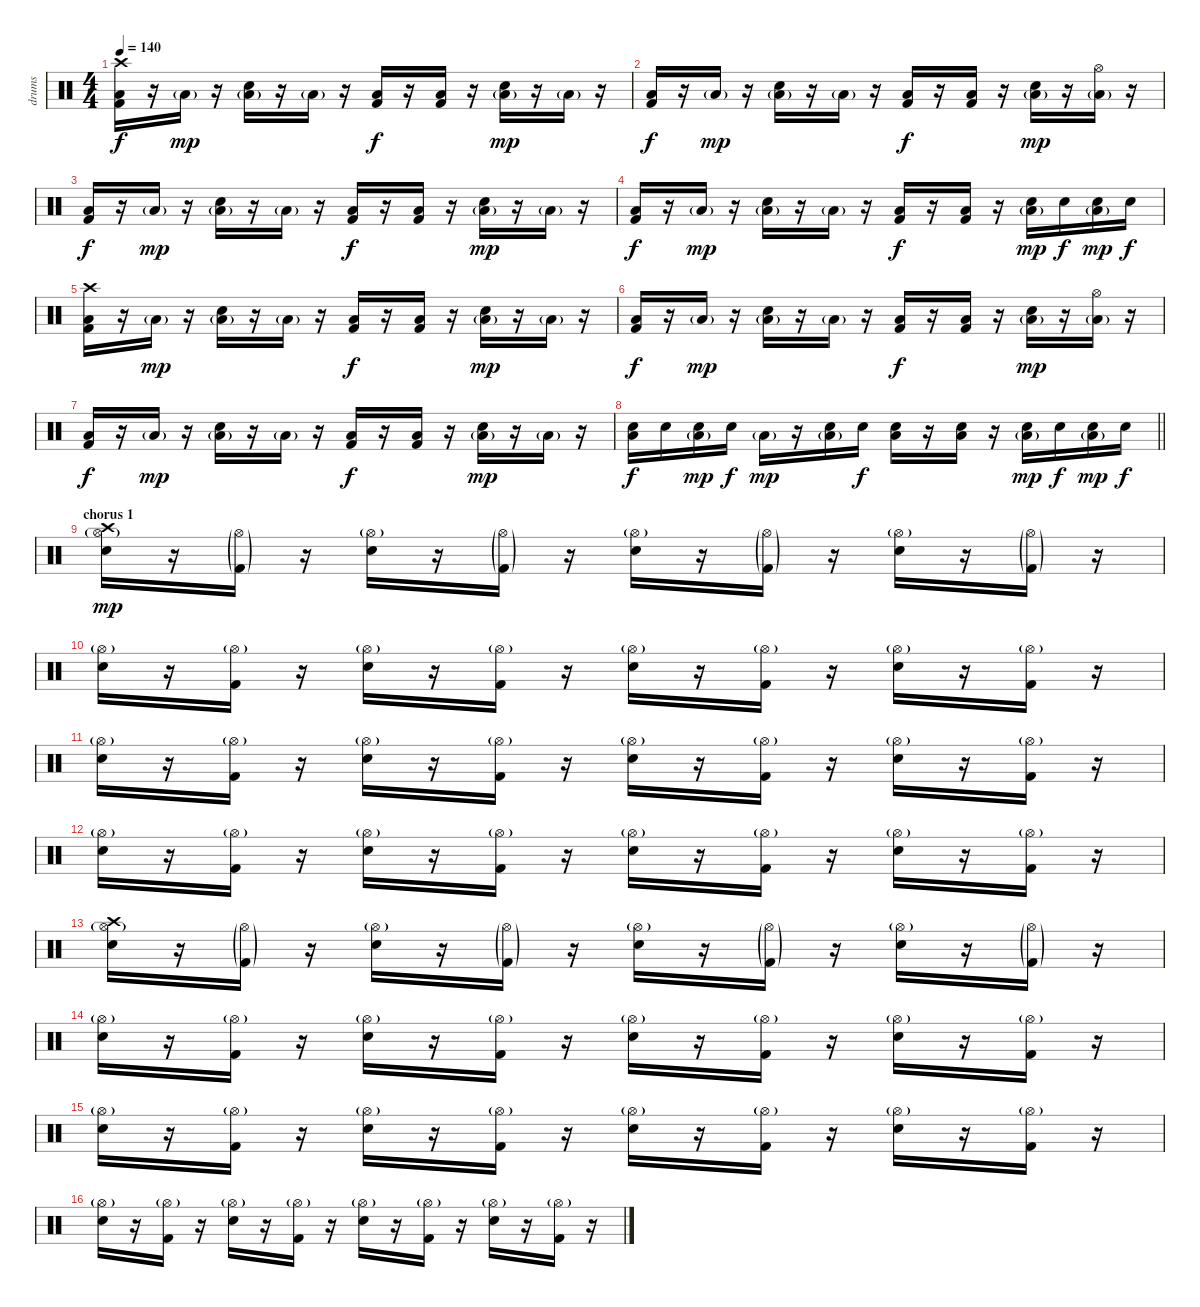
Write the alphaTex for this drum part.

\track ("drums" "drums") {instrument percussion}
\staff {score}
\articulation defaults
\ts (4 4)
\tempo 140
\clef neutral
\ks c
("Kick (hit) 2" "Low Floor Tom (hit)" "Crash high (hit)").16{dy f} r.16 "Low Floor Tom (hit)"{g}.16{dy mp} r.16 ("Electric Snare (hit)" "Low Floor Tom (hit)"{g}).16 r.16 "Low Floor Tom (hit)"{g}.16 r.16 ("Kick (hit) 2" "Low Floor Tom (hit)").16{dy f} r.16 ("Kick (hit) 2" "Low Floor Tom (hit)").16 r.16 ("Electric Snare (hit)" "Low Floor Tom (hit)"{g}).16{dy mp} r.16 "Low Floor Tom (hit)"{g}.16 r.16 |
("Kick (hit) 2" "Low Floor Tom (hit)").16{dy f} r.16 "Low Floor Tom (hit)"{g}.16{dy mp} r.16 ("Electric Snare (hit)" "Low Floor Tom (hit)"{g}).16 r.16 "Low Floor Tom (hit)"{g}.16 r.16 ("Kick (hit) 2" "Low Floor Tom (hit)").16{dy f} r.16 ("Kick (hit) 2" "Low Floor Tom (hit)").16 r.16 ("Electric Snare (hit)" "Low Floor Tom (hit)"{g}).16{dy mp} r.16 ("Hi-Hat (open)" "Low Floor Tom (hit)"{g}).16 r.16 |
("Kick (hit) 2" "Low Floor Tom (hit)").16{dy f} r.16 "Low Floor Tom (hit)"{g}.16{dy mp} r.16 ("Electric Snare (hit)" "Low Floor Tom (hit)"{g}).16 r.16 "Low Floor Tom (hit)"{g}.16 r.16 ("Kick (hit) 2" "Low Floor Tom (hit)").16{dy f} r.16 ("Kick (hit) 2" "Low Floor Tom (hit)").16 r.16 ("Electric Snare (hit)" "Low Floor Tom (hit)"{g}).16{dy mp} r.16 "Low Floor Tom (hit)"{g}.16 r.16 |
("Kick (hit) 2" "Low Floor Tom (hit)").16{dy f} r.16 "Low Floor Tom (hit)"{g}.16{dy mp} r.16 ("Electric Snare (hit)" "Low Floor Tom (hit)"{g}).16 r.16 "Low Floor Tom (hit)"{g}.16 r.16 ("Kick (hit) 2" "Low Floor Tom (hit)").16{dy f} r.16 ("Kick (hit) 2" "Low Floor Tom (hit)").16 r.16 ("Electric Snare (hit)" "Low Floor Tom (hit)"{g}).16{dy mp} "Electric Snare (hit)".16{dy f} ("Electric Snare (hit)" "Low Floor Tom (hit)"{g}).16{dy mp} "Electric Snare (hit)".16{dy f} |
("Kick (hit) 2" "Low Floor Tom (hit)" "Crash high (hit)").16 r.16 "Low Floor Tom (hit)"{g}.16{dy mp} r.16 ("Electric Snare (hit)" "Low Floor Tom (hit)"{g}).16 r.16 "Low Floor Tom (hit)"{g}.16 r.16 ("Kick (hit) 2" "Low Floor Tom (hit)").16{dy f} r.16 ("Kick (hit) 2" "Low Floor Tom (hit)").16 r.16 ("Electric Snare (hit)" "Low Floor Tom (hit)"{g}).16{dy mp} r.16 "Low Floor Tom (hit)"{g}.16 r.16 |
("Kick (hit) 2" "Low Floor Tom (hit)").16{dy f} r.16 "Low Floor Tom (hit)"{g}.16{dy mp} r.16 ("Electric Snare (hit)" "Low Floor Tom (hit)"{g}).16 r.16 "Low Floor Tom (hit)"{g}.16 r.16 ("Kick (hit) 2" "Low Floor Tom (hit)").16{dy f} r.16 ("Kick (hit) 2" "Low Floor Tom (hit)").16 r.16 ("Electric Snare (hit)" "Low Floor Tom (hit)"{g}).16{dy mp} r.16 ("Hi-Hat (open)" "Low Floor Tom (hit)"{g}).16 r.16 |
("Kick (hit) 2" "Low Floor Tom (hit)").16{dy f} r.16 "Low Floor Tom (hit)"{g}.16{dy mp} r.16 ("Electric Snare (hit)" "Low Floor Tom (hit)"{g}).16 r.16 "Low Floor Tom (hit)"{g}.16 r.16 ("Kick (hit) 2" "Low Floor Tom (hit)").16{dy f} r.16 ("Kick (hit) 2" "Low Floor Tom (hit)").16 r.16 ("Electric Snare (hit)" "Low Floor Tom (hit)"{g}).16{dy mp} r.16 "Low Floor Tom (hit)"{g}.16 r.16 |
\barLineRight lightlight
("Electric Snare (hit)" "Low Floor Tom (hit)").16{dy f} "Electric Snare (hit)".16 ("Electric Snare (hit)" "Low Floor Tom (hit)"{g}).16{dy mp} "Electric Snare (hit)".16{dy f} "Low Floor Tom (hit)"{g}.16{dy mp} r.16 ("Electric Snare (hit)" "Low Floor Tom (hit)"{g}).16 "Electric Snare (hit)".16{dy f} ("Electric Snare (hit)" "Low Floor Tom (hit)").16 r.16 ("Electric Snare (hit)" "Low Floor Tom (hit)").16 r.16 ("Electric Snare (hit)" "Low Floor Tom (hit)"{g}).16{dy mp} "Electric Snare (hit)".16{dy f} ("Electric Snare (hit)" "Low Floor Tom (hit)"{g}).16{dy mp} "Electric Snare (hit)".16{dy f} |
\section ("" "chorus 1")
("Electric Snare (hit)" "Hi-Hat (open)"{g} "Crash high (hit)").16{dy mp} r.16 ("Kick (hit) 2"{g} "Hi-Hat (open)"{g}).16 r.16 ("Electric Snare (hit)" "Hi-Hat (open)"{g}).16 r.16 ("Kick (hit) 2"{g} "Hi-Hat (open)"{g}).16 r.16 ("Electric Snare (hit)" "Hi-Hat (open)"{g}).16 r.16 ("Kick (hit) 2"{g} "Hi-Hat (open)"{g}).16 r.16 ("Electric Snare (hit)" "Hi-Hat (open)"{g}).16 r.16 ("Kick (hit) 2"{g} "Hi-Hat (open)"{g}).16 r.16 |
("Electric Snare (hit)" "Hi-Hat (open)"{g}).16 r.16 ("Kick (hit) 2" "Hi-Hat (open)"{g}).16 r.16 ("Electric Snare (hit)" "Hi-Hat (open)"{g}).16 r.16 ("Kick (hit) 2" "Hi-Hat (open)"{g}).16 r.16 ("Electric Snare (hit)" "Hi-Hat (open)"{g}).16 r.16 ("Kick (hit) 2" "Hi-Hat (open)"{g}).16 r.16 ("Electric Snare (hit)" "Hi-Hat (open)"{g}).16 r.16 ("Kick (hit) 2" "Hi-Hat (open)"{g}).16 r.16 |
("Electric Snare (hit)" "Hi-Hat (open)"{g}).16 r.16 ("Kick (hit) 2" "Hi-Hat (open)"{g}).16 r.16 ("Electric Snare (hit)" "Hi-Hat (open)"{g}).16 r.16 ("Kick (hit) 2" "Hi-Hat (open)"{g}).16 r.16 ("Electric Snare (hit)" "Hi-Hat (open)"{g}).16 r.16 ("Kick (hit) 2" "Hi-Hat (open)"{g}).16 r.16 ("Electric Snare (hit)" "Hi-Hat (open)"{g}).16 r.16 ("Kick (hit) 2" "Hi-Hat (open)"{g}).16 r.16 |
("Electric Snare (hit)" "Hi-Hat (open)"{g}).16 r.16 ("Kick (hit) 2" "Hi-Hat (open)"{g}).16 r.16 ("Electric Snare (hit)" "Hi-Hat (open)"{g}).16 r.16 ("Kick (hit) 2" "Hi-Hat (open)"{g}).16 r.16 ("Electric Snare (hit)" "Hi-Hat (open)"{g}).16 r.16 ("Kick (hit) 2" "Hi-Hat (open)"{g}).16 r.16 ("Electric Snare (hit)" "Hi-Hat (open)"{g}).16 r.16 ("Kick (hit) 2" "Hi-Hat (open)"{g}).16 r.16 |
("Electric Snare (hit)" "Hi-Hat (open)"{g} "Crash high (hit)").16 r.16 ("Kick (hit) 2"{g} "Hi-Hat (open)"{g}).16 r.16 ("Electric Snare (hit)" "Hi-Hat (open)"{g}).16 r.16 ("Kick (hit) 2"{g} "Hi-Hat (open)"{g}).16 r.16 ("Electric Snare (hit)" "Hi-Hat (open)"{g}).16 r.16 ("Kick (hit) 2"{g} "Hi-Hat (open)"{g}).16 r.16 ("Electric Snare (hit)" "Hi-Hat (open)"{g}).16 r.16 ("Kick (hit) 2"{g} "Hi-Hat (open)"{g}).16 r.16 |
("Electric Snare (hit)" "Hi-Hat (open)"{g}).16 r.16 ("Kick (hit) 2" "Hi-Hat (open)"{g}).16 r.16 ("Electric Snare (hit)" "Hi-Hat (open)"{g}).16 r.16 ("Kick (hit) 2" "Hi-Hat (open)"{g}).16 r.16 ("Electric Snare (hit)" "Hi-Hat (open)"{g}).16 r.16 ("Kick (hit) 2" "Hi-Hat (open)"{g}).16 r.16 ("Electric Snare (hit)" "Hi-Hat (open)"{g}).16 r.16 ("Kick (hit) 2" "Hi-Hat (open)"{g}).16 r.16 |
("Electric Snare (hit)" "Hi-Hat (open)"{g}).16 r.16 ("Kick (hit) 2" "Hi-Hat (open)"{g}).16 r.16 ("Electric Snare (hit)" "Hi-Hat (open)"{g}).16 r.16 ("Kick (hit) 2" "Hi-Hat (open)"{g}).16 r.16 ("Electric Snare (hit)" "Hi-Hat (open)"{g}).16 r.16 ("Kick (hit) 2" "Hi-Hat (open)"{g}).16 r.16 ("Electric Snare (hit)" "Hi-Hat (open)"{g}).16 r.16 ("Kick (hit) 2" "Hi-Hat (open)"{g}).16 r.16 |
("Electric Snare (hit)" "Hi-Hat (open)"{g}).16 r.16 ("Kick (hit) 2" "Hi-Hat (open)"{g}).16 r.16 ("Electric Snare (hit)" "Hi-Hat (open)"{g}).16 r.16 ("Kick (hit) 2" "Hi-Hat (open)"{g}).16 r.16 ("Electric Snare (hit)" "Hi-Hat (open)"{g}).16 r.16 ("Kick (hit) 2" "Hi-Hat (open)"{g}).16 r.16 ("Electric Snare (hit)" "Hi-Hat (open)"{g}).16 r.16 ("Kick (hit) 2" "Hi-Hat (open)"{g}).16 r.16
